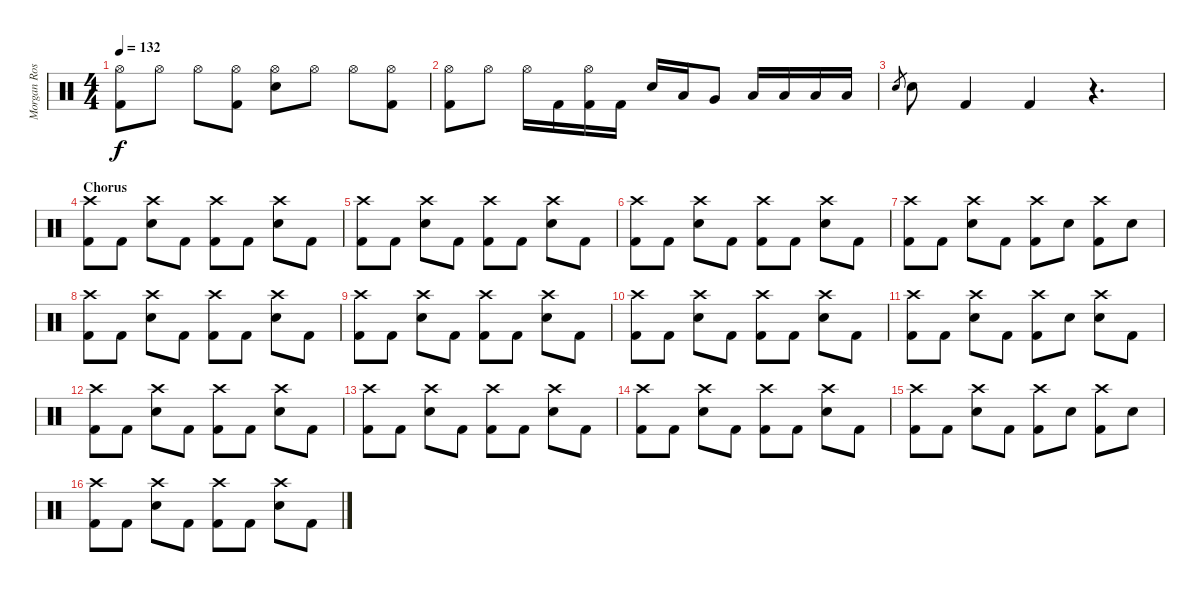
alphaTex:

\track ("Morgan Rose" "Morgan Ros") {instrument percussion}
\staff {score}
\articulation defaults
\ts (4 4)
\tempo 132
\clef neutral
\ks c
("Hi-Hat (open)" "Kick (hit) 2").8{dy f} "Hi-Hat (open)".8 "Hi-Hat (open)".8 ("Hi-Hat (open)" "Kick (hit) 2").8 ("Hi-Hat (open)" "Electric Snare (hit)").8 "Hi-Hat (open)".8 "Hi-Hat (open)".8 ("Hi-Hat (open)" "Kick (hit) 2").8 |
("Hi-Hat (open)" "Kick (hit) 2").8 "Hi-Hat (open)".8 "Hi-Hat (open)".16 "Kick (hit) 2".16 ("Hi-Hat (open)" "Kick (hit) 2").16 "Kick (hit) 2".16 "Electric Snare (hit)".16 "Low Tom (hit)".16 "Very Low Tom (hit)".8 "Low Floor Tom (hit)".16 "Low Floor Tom (hit)".16 "Low Floor Tom (hit)".16 "Low Floor Tom (hit)".16 |
"Electric Snare (hit)".8{gr} "Electric Snare (hit)".8 "Kick (hit) 2".4 "Kick (hit) 2".4 r.4{d} |
\section ("" "Chorus")
("Crash high (hit)" "Kick (hit) 2").8 "Kick (hit) 2".8 ("Crash high (hit)" "Electric Snare (hit)").8 "Kick (hit) 2".8 ("Crash high (hit)" "Kick (hit) 2").8 "Kick (hit) 2".8 ("Crash high (hit)" "Electric Snare (hit)").8 "Kick (hit) 2".8 |
("Crash high (hit)" "Kick (hit) 2").8 "Kick (hit) 2".8 ("Crash high (hit)" "Electric Snare (hit)").8 "Kick (hit) 2".8 ("Crash high (hit)" "Kick (hit) 2").8 "Kick (hit) 2".8 ("Crash high (hit)" "Electric Snare (hit)").8 "Kick (hit) 2".8 |
("Crash high (hit)" "Kick (hit) 2").8 "Kick (hit) 2".8 ("Crash high (hit)" "Electric Snare (hit)").8 "Kick (hit) 2".8 ("Crash high (hit)" "Kick (hit) 2").8 "Kick (hit) 2".8 ("Crash high (hit)" "Electric Snare (hit)").8 "Kick (hit) 2".8 |
("Crash high (hit)" "Kick (hit) 2").8 "Kick (hit) 2".8 ("Crash high (hit)" "Electric Snare (hit)").8 "Kick (hit) 2".8 ("Crash high (hit)" "Kick (hit) 2").8 "Electric Snare (hit)".8 ("Crash high (hit)" "Kick (hit) 2").8 "Electric Snare (hit)".8 |
("Crash high (hit)" "Kick (hit) 2").8 "Kick (hit) 2".8 ("Crash high (hit)" "Electric Snare (hit)").8 "Kick (hit) 2".8 ("Crash high (hit)" "Kick (hit) 2").8 "Kick (hit) 2".8 ("Crash high (hit)" "Electric Snare (hit)").8 "Kick (hit) 2".8 |
("Crash high (hit)" "Kick (hit) 2").8 "Kick (hit) 2".8 ("Crash high (hit)" "Electric Snare (hit)").8 "Kick (hit) 2".8 ("Crash high (hit)" "Kick (hit) 2").8 "Kick (hit) 2".8 ("Crash high (hit)" "Electric Snare (hit)").8 "Kick (hit) 2".8 |
("Crash high (hit)" "Kick (hit) 2").8 "Kick (hit) 2".8 ("Crash high (hit)" "Electric Snare (hit)").8 "Kick (hit) 2".8 ("Crash high (hit)" "Kick (hit) 2").8 "Kick (hit) 2".8 ("Crash high (hit)" "Electric Snare (hit)").8 "Kick (hit) 2".8 |
("Crash high (hit)" "Kick (hit) 2").8 "Kick (hit) 2".8 ("Crash high (hit)" "Electric Snare (hit)").8 "Kick (hit) 2".8 ("Crash high (hit)" "Kick (hit) 2").8 "Electric Snare (hit)".8 ("Crash high (hit)" "Electric Snare (hit)").8 "Kick (hit) 2".8 |
("Crash high (hit)" "Kick (hit) 2").8 "Kick (hit) 2".8 ("Crash high (hit)" "Electric Snare (hit)").8 "Kick (hit) 2".8 ("Crash high (hit)" "Kick (hit) 2").8 "Kick (hit) 2".8 ("Crash high (hit)" "Electric Snare (hit)").8 "Kick (hit) 2".8 |
("Crash high (hit)" "Kick (hit) 2").8 "Kick (hit) 2".8 ("Crash high (hit)" "Electric Snare (hit)").8 "Kick (hit) 2".8 ("Crash high (hit)" "Kick (hit) 2").8 "Kick (hit) 2".8 ("Crash high (hit)" "Electric Snare (hit)").8 "Kick (hit) 2".8 |
("Crash high (hit)" "Kick (hit) 2").8 "Kick (hit) 2".8 ("Crash high (hit)" "Electric Snare (hit)").8 "Kick (hit) 2".8 ("Crash high (hit)" "Kick (hit) 2").8 "Kick (hit) 2".8 ("Crash high (hit)" "Electric Snare (hit)").8 "Kick (hit) 2".8 |
("Crash high (hit)" "Kick (hit) 2").8 "Kick (hit) 2".8 ("Crash high (hit)" "Electric Snare (hit)").8 "Kick (hit) 2".8 ("Crash high (hit)" "Kick (hit) 2").8 "Electric Snare (hit)".8 ("Crash high (hit)" "Kick (hit) 2").8 "Electric Snare (hit)".8 |
("Crash high (hit)" "Kick (hit) 2").8 "Kick (hit) 2".8 ("Crash high (hit)" "Electric Snare (hit)").8 "Kick (hit) 2".8 ("Crash high (hit)" "Kick (hit) 2").8 "Kick (hit) 2".8 ("Crash high (hit)" "Electric Snare (hit)").8 "Kick (hit) 2".8
